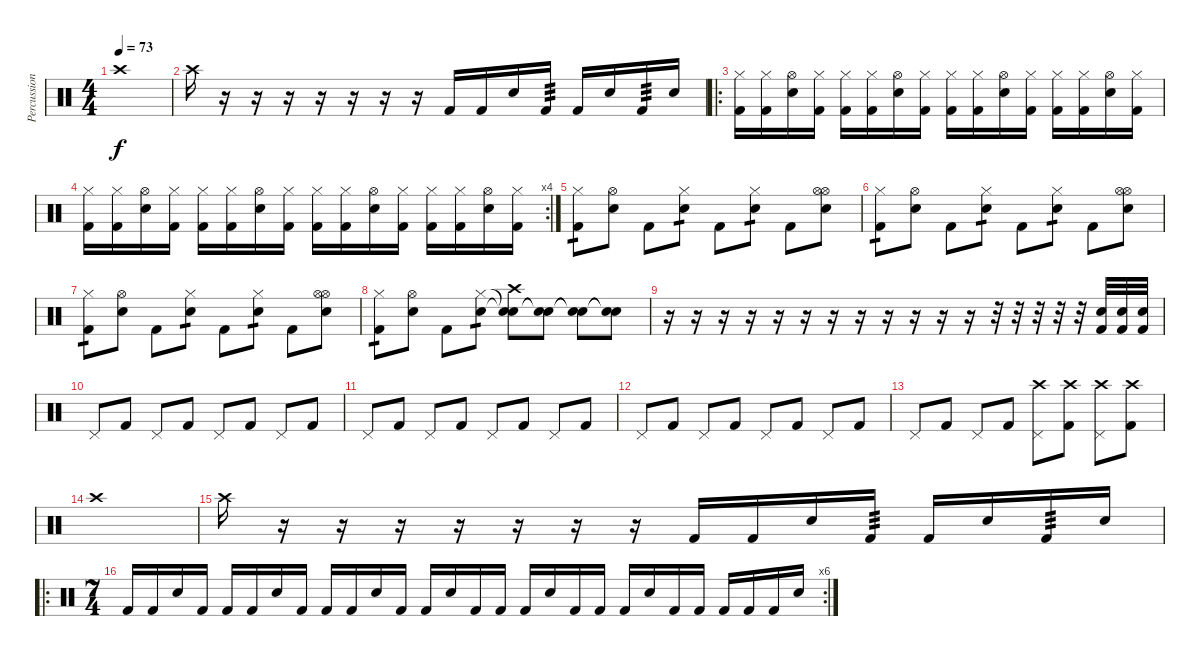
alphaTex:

\track ("Percussion" "Percussion") {instrument percussion}
\staff {score}
\articulation defaults
\ts (4 4)
\tempo 73
\clef neutral
\ks c "Crash high (hit)".1{dy f}
|
"Crash high (hit)".16 r.16 r.16 r.16 r.16 r.16 r.16 r.16 "Kick (hit) 2".16 "Kick (hit) 2".16 "Snare (hit) 2".16 "Kick (hit) 2".16{tp 3} "Kick (hit) 2".16 "Snare (hit) 2".16 "Kick (hit) 2".16{tp 3} "Snare (hit) 2".16 |
\ro
("Hi-Hat (closed)" "Kick (hit) 2").16 ("Hi-Hat (closed)" "Kick (hit) 2").16 ("Hi-Hat (open)" "Snare (hit) 2").16 ("Hi-Hat (closed)" "Kick (hit) 2").16 ("Hi-Hat (closed)" "Kick (hit) 2").16 ("Hi-Hat (closed)" "Kick (hit) 2").16 ("Hi-Hat (open)" "Snare (hit) 2").16 ("Hi-Hat (closed)" "Kick (hit) 2").16 ("Hi-Hat (closed)" "Kick (hit) 2").16 ("Hi-Hat (closed)" "Kick (hit) 2").16 ("Hi-Hat (open)" "Snare (hit) 2").16 ("Hi-Hat (closed)" "Kick (hit) 2").16 ("Hi-Hat (closed)" "Kick (hit) 2").16 ("Hi-Hat (closed)" "Kick (hit) 2").16 ("Hi-Hat (open)" "Snare (hit) 2").16 ("Hi-Hat (closed)" "Kick (hit) 2").16 |
\rc 4
("Hi-Hat (closed)" "Kick (hit) 2").16 ("Hi-Hat (closed)" "Kick (hit) 2").16 ("Hi-Hat (open)" "Snare (hit) 2").16 ("Hi-Hat (closed)" "Kick (hit) 2").16 ("Hi-Hat (closed)" "Kick (hit) 2").16 ("Hi-Hat (closed)" "Kick (hit) 2").16 ("Hi-Hat (open)" "Snare (hit) 2").16 ("Hi-Hat (closed)" "Kick (hit) 2").16 ("Hi-Hat (closed)" "Kick (hit) 2").16 ("Hi-Hat (closed)" "Kick (hit) 2").16 ("Hi-Hat (open)" "Snare (hit) 2").16 ("Hi-Hat (closed)" "Kick (hit) 2").16 ("Hi-Hat (closed)" "Kick (hit) 2").16 ("Hi-Hat (closed)" "Kick (hit) 2").16 ("Hi-Hat (open)" "Snare (hit) 2").16 ("Hi-Hat (closed)" "Kick (hit) 2").16 |
("Hi-Hat (closed)" "Kick (hit) 2").8{tp 1} ("Snare (hit) 2" "Hi-Hat (open)").8 "Kick (hit) 2".8 ("Hi-Hat (closed)" "Snare (hit) 2").8{tp 1} "Kick (hit) 2".8 ("Hi-Hat (closed)" "Snare (hit) 2").8{tp 1} "Kick (hit) 2".8 ("Hi-Hat (open)" "Hi-Hat (open)" "Snare (hit) 2").8 |
("Hi-Hat (closed)" "Kick (hit) 2").8{tp 1} ("Snare (hit) 2" "Hi-Hat (open)").8 "Kick (hit) 2".8 ("Hi-Hat (closed)" "Snare (hit) 2").8{tp 1} "Kick (hit) 2".8 ("Hi-Hat (closed)" "Snare (hit) 2").8{tp 1} "Kick (hit) 2".8 ("Hi-Hat (open)" "Hi-Hat (open)" "Snare (hit) 2").8 |
("Hi-Hat (closed)" "Kick (hit) 2").8{tp 1} ("Snare (hit) 2" "Hi-Hat (open)").8 "Kick (hit) 2".8 ("Hi-Hat (closed)" "Snare (hit) 2").8{tp 1} "Kick (hit) 2".8 ("Hi-Hat (closed)" "Snare (hit) 2").8{tp 1} "Kick (hit) 2".8 ("Hi-Hat (open)" "Hi-Hat (open)" "Snare (hit) 2").8 |
("Hi-Hat (closed)" "Kick (hit) 2").8{tp 1} ("Snare (hit) 2" "Hi-Hat (open)").8 "Kick (hit) 2".8 ("Hi-Hat (closed)" "Snare (hit) 2").8{tp 1} ("Snare (hit)"{t} "Snare (hit)"{t} "Crash high (hit)").8 ("Snare (hit)"{t} "Snare (hit)"{t}).8 ("Snare (hit)"{t} "Snare (hit)"{t}).8 ("Snare (hit)"{t} "Snare (hit)"{t}).8 |
r.16 r.16 r.16 r.16 r.16 r.16 r.16 r.16 r.16 r.16 r.16 r.16 r.32 r.32 r.32 r.32 r.32 ("Snare (hit) 2" "Kick (hit) 2").32 ("Snare (hit) 2" "Kick (hit) 2").32 ("Snare (hit) 2" "Kick (hit) 2").32 |
"Pedal Hi-Hat (hit)".8 "Kick (hit) 2".8 "Pedal Hi-Hat (hit)".8 "Kick (hit) 2".8 "Pedal Hi-Hat (hit)".8 "Kick (hit) 2".8 "Pedal Hi-Hat (hit)".8 "Kick (hit) 2".8 |
"Pedal Hi-Hat (hit)".8 "Kick (hit) 2".8 "Pedal Hi-Hat (hit)".8 "Kick (hit) 2".8 "Pedal Hi-Hat (hit)".8 "Kick (hit) 2".8 "Pedal Hi-Hat (hit)".8 "Kick (hit) 2".8 |
"Pedal Hi-Hat (hit)".8 "Kick (hit) 2".8 "Pedal Hi-Hat (hit)".8 "Kick (hit) 2".8 "Pedal Hi-Hat (hit)".8 "Kick (hit) 2".8 "Pedal Hi-Hat (hit)".8 "Kick (hit) 2".8 |
"Pedal Hi-Hat (hit)".8 "Kick (hit) 2".8 "Pedal Hi-Hat (hit)".8 "Kick (hit) 2".8 ("Crash high (hit)" "Pedal Hi-Hat (hit)").8 ("Crash high (hit)" "Kick (hit) 2").8 ("Crash high (hit)" "Pedal Hi-Hat (hit)").8 ("Crash high (hit)" "Kick (hit) 2").8 |
"Crash high (hit)".1 |
"Crash high (hit)".16 r.16 r.16 r.16 r.16 r.16 r.16 r.16 "Kick (hit) 2".16 "Kick (hit) 2".16 "Snare (hit) 2".16 "Kick (hit) 2".16{tp 3} "Kick (hit) 2".16 "Snare (hit) 2".16 "Kick (hit) 2".16{tp 3} "Snare (hit) 2".16 |
\ro
\rc 6
\ts (7 4)
"Kick (hit) 2".16{volume 11} "Kick (hit) 2".16 "Snare (hit) 2".16 "Kick (hit) 2".16 "Kick (hit) 2".16 "Kick (hit) 2".16 "Snare (hit) 2".16 "Kick (hit) 2".16 "Kick (hit) 2".16 "Kick (hit) 2".16 "Snare (hit) 2".16 "Kick (hit) 2".16 "Kick (hit) 2".16 "Snare (hit) 2".16 "Kick (hit) 2".16 "Kick (hit) 2".16 "Kick (hit) 2".16 "Snare (hit) 2".16 "Kick (hit) 2".16 "Kick (hit) 2".16 "Kick (hit) 2".16 "Snare (hit) 2".16 "Kick (hit) 2".16 "Kick (hit) 2".16 "Kick (hit) 2".16 "Kick (hit) 2".16 "Kick (hit) 2".16 "Snare (hit) 2".16
